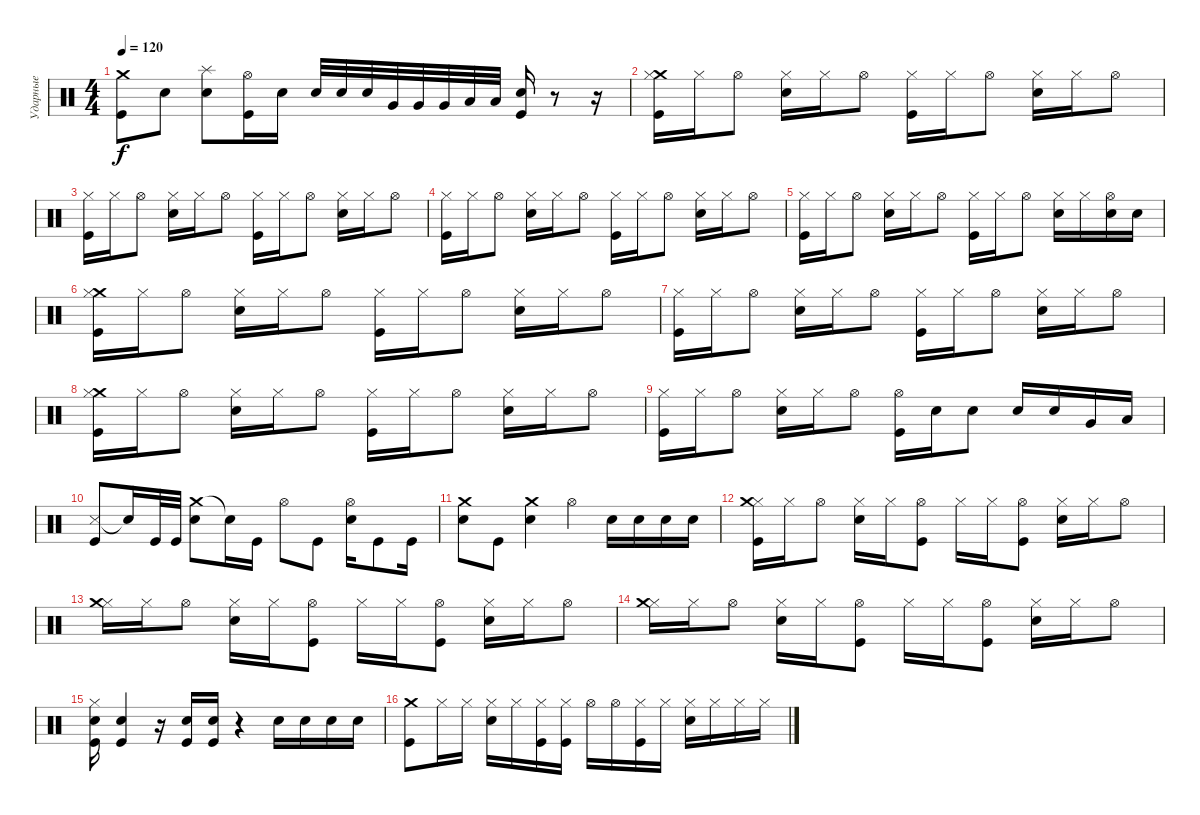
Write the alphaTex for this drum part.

\track ("Ударные" "Ударные") {instrument percussion}
\staff {score}
\articulation defaults
\ts (4 4)
\tempo 120
\clef neutral
\ks c
("Crash medium (hit)" "Kick (hit)").8{dy f} "Snare (hit) 2".8 ("Splash (hit)" "Snare (hit) 2").8 ("Hi-Hat (open)" "Kick (hit)").16 "Snare (hit) 2".16 "Snare (hit) 2".32 "Snare (hit) 2".32 "Snare (hit) 2".32 "Very Low Tom (hit)".32 "Very Low Tom (hit)".32 "Very Low Tom (hit)".32 "Low Floor Tom (hit)".32 "Low Floor Tom (hit)".32 ("Snare (hit) 2" "Kick (hit)").16 r.8 r.16 |
("Crash medium (hit)" "Hi-Hat (closed)" "Kick (hit)").16 "Hi-Hat (closed)".16 "Hi-Hat (open)".8 ("Hi-Hat (closed)" "Snare (hit) 2").16 "Hi-Hat (closed)".16 "Hi-Hat (open)".8 ("Hi-Hat (closed)" "Kick (hit)").16 "Hi-Hat (closed)".16 "Hi-Hat (open)".8 ("Hi-Hat (closed)" "Snare (hit) 2").16 "Hi-Hat (closed)".16 "Hi-Hat (open)".8 |
("Hi-Hat (closed)" "Kick (hit)").16 "Hi-Hat (closed)".16 "Hi-Hat (open)".8 ("Hi-Hat (closed)" "Snare (hit) 2").16 "Hi-Hat (closed)".16 "Hi-Hat (open)".8 ("Hi-Hat (closed)" "Kick (hit)").16 "Hi-Hat (closed)".16 "Hi-Hat (open)".8 ("Hi-Hat (closed)" "Snare (hit) 2").16 "Hi-Hat (closed)".16 "Hi-Hat (open)".8 |
("Hi-Hat (closed)" "Kick (hit)").16 "Hi-Hat (closed)".16 "Hi-Hat (open)".8 ("Hi-Hat (closed)" "Snare (hit) 2").16 "Hi-Hat (closed)".16 "Hi-Hat (open)".8 ("Hi-Hat (closed)" "Kick (hit)").16 "Hi-Hat (closed)".16 "Hi-Hat (open)".8 ("Hi-Hat (closed)" "Snare (hit) 2").16 "Hi-Hat (closed)".16 "Hi-Hat (open)".8 |
("Hi-Hat (closed)" "Kick (hit)").16 "Hi-Hat (closed)".16 "Hi-Hat (open)".8 ("Hi-Hat (closed)" "Snare (hit) 2").16 "Hi-Hat (closed)".16 "Hi-Hat (open)".8 ("Hi-Hat (closed)" "Kick (hit)").16 "Hi-Hat (closed)".16 "Hi-Hat (open)".8 ("Hi-Hat (closed)" "Snare (hit) 2").16 "Hi-Hat (closed)".16 ("Snare (hit) 2" "Hi-Hat (open)").16 "Snare (hit) 2".16 |
("Crash medium (hit)" "Hi-Hat (closed)" "Kick (hit)").16 "Hi-Hat (closed)".16 "Hi-Hat (open)".8 ("Hi-Hat (closed)" "Snare (hit) 2").16 "Hi-Hat (closed)".16 "Hi-Hat (open)".8 ("Hi-Hat (closed)" "Kick (hit)").16 "Hi-Hat (closed)".16 "Hi-Hat (open)".8 ("Hi-Hat (closed)" "Snare (hit) 2").16 "Hi-Hat (closed)".16 "Hi-Hat (open)".8 |
("Hi-Hat (closed)" "Kick (hit)").16 "Hi-Hat (closed)".16 "Hi-Hat (open)".8 ("Hi-Hat (closed)" "Snare (hit) 2").16 "Hi-Hat (closed)".16 "Hi-Hat (open)".8 ("Hi-Hat (closed)" "Kick (hit)").16 "Hi-Hat (closed)".16 "Hi-Hat (open)".8 ("Hi-Hat (closed)" "Snare (hit) 2").16 "Hi-Hat (closed)".16 "Hi-Hat (open)".8 |
("Crash medium (hit)" "Hi-Hat (closed)" "Kick (hit)").16 "Hi-Hat (closed)".16 "Hi-Hat (open)".8 ("Hi-Hat (closed)" "Snare (hit) 2").16 "Hi-Hat (closed)".16 "Hi-Hat (open)".8 ("Hi-Hat (closed)" "Kick (hit)").16 "Hi-Hat (closed)".16 "Hi-Hat (open)".8 ("Hi-Hat (closed)" "Snare (hit) 2").16 "Hi-Hat (closed)".16 "Hi-Hat (open)".8 |
("Hi-Hat (closed)" "Kick (hit)").16 "Hi-Hat (closed)".16 "Hi-Hat (open)".8 ("Hi-Hat (closed)" "Snare (hit) 2").16 "Hi-Hat (closed)".16 "Hi-Hat (open)".8 ("Hi-Hat (open)" "Kick (hit)").16 "Snare (hit) 2".16 "Snare (hit) 2".8 "Snare (hit) 2".16 "Snare (hit) 2".16 "Very Low Tom (hit)".16 "Low Floor Tom (hit)".16 |
("Snare (side stick) 3" "Kick (hit)").8 "Snare (hit)"{t}.16 "Kick (hit)".32 "Kick (hit)".32 ("Crash medium (hit)" "Snare (hit) 2").8 "Snare (hit)"{t}.16 "Kick (hit)".16 "Hi-Hat (open)".8 "Kick (hit)".8 ("Hi-Hat (open)" "Snare (hit) 2").16 "Kick (hit)".8 "Kick (hit)".16 |
("Crash medium (hit)" "Snare (hit) 2").8 "Kick (hit)".8 ("Snare (hit) 2" "Crash medium (hit)").4 "Hi-Hat (open)".4 "Snare (hit) 2".16 "Snare (hit) 2".16 "Snare (hit) 2".16 "Snare (hit) 2".16 |
("Hi-Hat (closed)" "Kick (hit)" "Crash medium (hit)").16 "Hi-Hat (closed)".16 "Hi-Hat (open)".8 ("Hi-Hat (closed)" "Snare (hit) 2").16 "Hi-Hat (closed)".16 ("Hi-Hat (open)" "Kick (hit)").8 "Hi-Hat (closed)".16 "Hi-Hat (closed)".16 ("Hi-Hat (open)" "Kick (hit)").8 ("Hi-Hat (closed)" "Snare (hit) 2").16 "Hi-Hat (closed)".16 "Hi-Hat (open)".8 |
("Hi-Hat (closed)" "Crash medium (hit)").16 "Hi-Hat (closed)".16 "Hi-Hat (open)".8 ("Hi-Hat (closed)" "Snare (hit) 2").16 "Hi-Hat (closed)".16 ("Hi-Hat (open)" "Kick (hit)").8 "Hi-Hat (closed)".16 "Hi-Hat (closed)".16 ("Hi-Hat (open)" "Kick (hit)").8 ("Hi-Hat (closed)" "Snare (hit) 2").16 "Hi-Hat (closed)".16 "Hi-Hat (open)".8 |
("Hi-Hat (closed)" "Crash medium (hit)").16 "Hi-Hat (closed)".16 "Hi-Hat (open)".8 ("Hi-Hat (closed)" "Snare (hit) 2").16 "Hi-Hat (closed)".16 ("Hi-Hat (open)" "Kick (hit)").8 "Hi-Hat (closed)".16 "Hi-Hat (closed)".16 ("Hi-Hat (open)" "Kick (hit)").8 ("Hi-Hat (closed)" "Snare (hit) 2").16 "Hi-Hat (closed)".16 "Hi-Hat (open)".8 |
("Hi-Hat (closed)" "Kick (hit)" "Snare (hit) 2").16 ("Snare (hit) 2" "Kick (hit)").4 r.16 ("Snare (hit) 2" "Kick (hit)").16 ("Snare (hit) 2" "Kick (hit)").16 r.4 "Snare (hit) 2".16 "Snare (hit) 2".16 "Snare (hit) 2".16 "Snare (hit) 2".16 |
("Crash medium (hit)" "Kick (hit)").8 "Hi-Hat (closed)".16 "Hi-Hat (closed)".16 ("Hi-Hat (closed)" "Snare (hit) 2").16 "Hi-Hat (closed)".16 ("Hi-Hat (closed)" "Kick (hit)").16 ("Hi-Hat (closed)" "Kick (hit)").16 "Hi-Hat (open)".16 "Hi-Hat (open)".16 ("Hi-Hat (closed)" "Kick (hit)").16 "Hi-Hat (closed)".16 ("Hi-Hat (closed)" "Snare (hit) 2").16 "Hi-Hat (closed)".16 "Hi-Hat (closed)".16 "Hi-Hat (closed)".16
